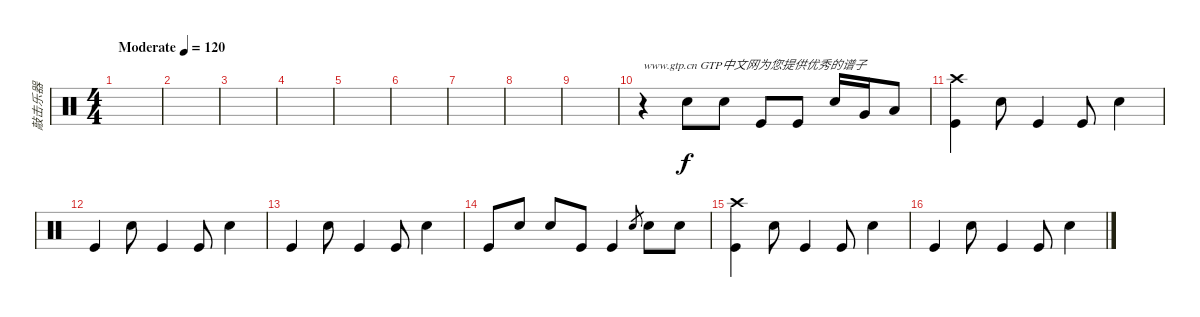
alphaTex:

\track ("敲击乐器" "敲击乐器") {instrument percussion}
\staff {score}
\articulation defaults
\ts (4 4)
\tempo (120 "Moderate")
\clef neutral
\ks c
|
|
|
|
|
|
|
|
|
r.4{txt "www.gtp.cn GTP中文网为您提供优秀的谱子"} "Electric Snare (hit)".8 "Electric Snare (hit)".8 "Kick (hit)".8 "Kick (hit)".8 "Electric Snare (hit)".16 "Very Low Tom (hit)".16 "Low Floor Tom (hit)".8 |
("Kick (hit)" "Crash high (hit)").4 "Electric Snare (hit)".8 "Kick (hit)".4 "Kick (hit)".8 "Electric Snare (hit)".4 |
"Kick (hit)".4 "Electric Snare (hit)".8 "Kick (hit)".4 "Kick (hit)".8 "Electric Snare (hit)".4 |
"Kick (hit)".4 "Electric Snare (hit)".8 "Kick (hit)".4 "Kick (hit)".8 "Electric Snare (hit)".4 |
"Kick (hit)".8 "Electric Snare (hit)".8 "Electric Snare (hit)".8 "Kick (hit)".8 "Kick (hit)".4 "Electric Snare (hit)".8{gr} "Electric Snare (hit)".8 "Electric Snare (hit)".8 |
("Kick (hit)" "Crash high (hit)").4 "Electric Snare (hit)".8 "Kick (hit)".4 "Kick (hit)".8 "Electric Snare (hit)".4 |
"Kick (hit)".4 "Electric Snare (hit)".8 "Kick (hit)".4 "Kick (hit)".8 "Electric Snare (hit)".4
